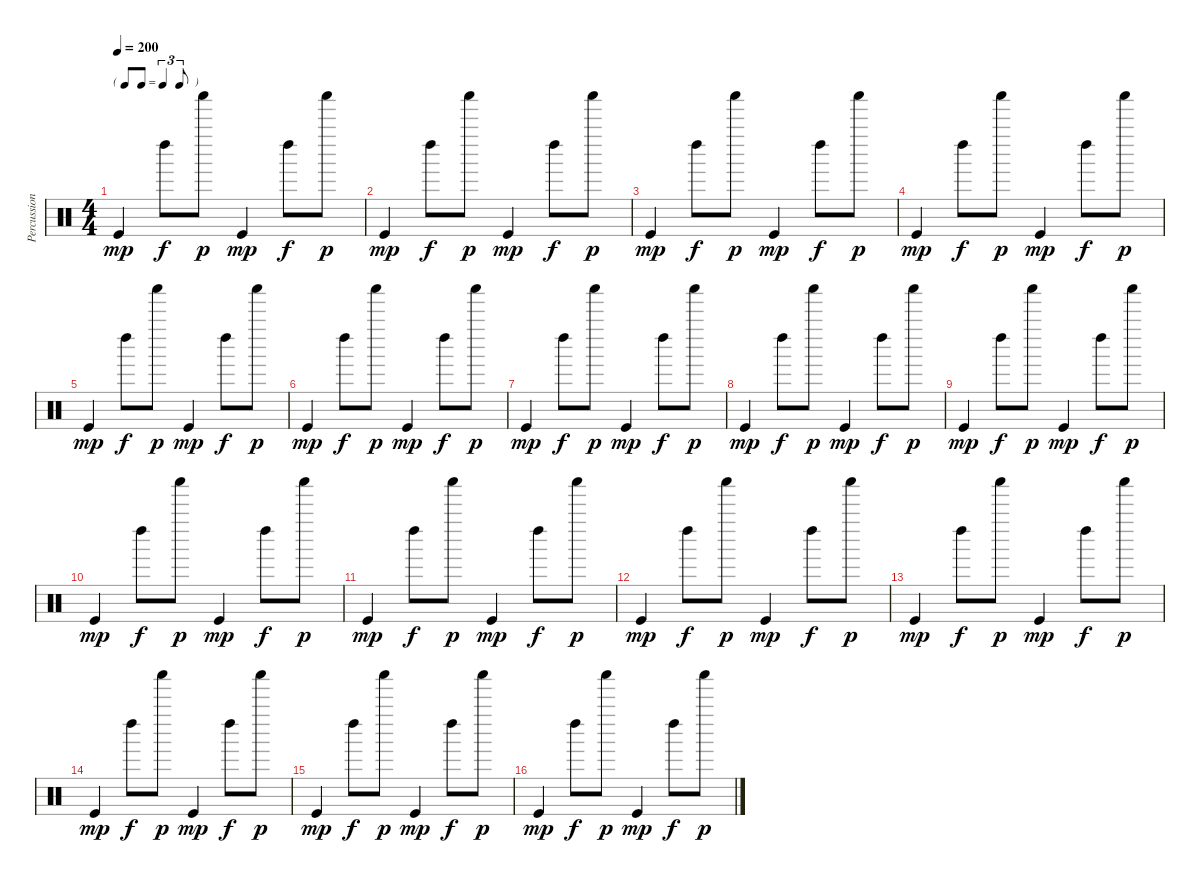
\track ("Percussions" "Percussion") {instrument percussion}
\staff {score}
\articulation defaults
\ts (4 4)
\tf triplet8th
\tempo 200
\clef neutral
\ks c "Kick (hit)".4{dy mp} "Left Maraca (hit)".8{dy f} "Shaker (hit)".8{dy p} "Kick (hit)".4{dy mp} "Left Maraca (hit)".8{dy f} "Shaker (hit)".8{dy p}
|
"Kick (hit)".4{dy mp} "Left Maraca (hit)".8{dy f} "Shaker (hit)".8{dy p} "Kick (hit)".4{dy mp} "Left Maraca (hit)".8{dy f} "Shaker (hit)".8{dy p} |
"Kick (hit)".4{dy mp} "Left Maraca (hit)".8{dy f} "Shaker (hit)".8{dy p} "Kick (hit)".4{dy mp} "Left Maraca (hit)".8{dy f} "Shaker (hit)".8{dy p} |
"Kick (hit)".4{dy mp} "Left Maraca (hit)".8{dy f} "Shaker (hit)".8{dy p} "Kick (hit)".4{dy mp} "Left Maraca (hit)".8{dy f} "Shaker (hit)".8{dy p} |
"Kick (hit)".4{dy mp} "Left Maraca (hit)".8{dy f} "Shaker (hit)".8{dy p} "Kick (hit)".4{dy mp} "Left Maraca (hit)".8{dy f} "Shaker (hit)".8{dy p} |
"Kick (hit)".4{dy mp} "Left Maraca (hit)".8{dy f} "Shaker (hit)".8{dy p} "Kick (hit)".4{dy mp} "Left Maraca (hit)".8{dy f} "Shaker (hit)".8{dy p} |
"Kick (hit)".4{dy mp} "Left Maraca (hit)".8{dy f} "Shaker (hit)".8{dy p} "Kick (hit)".4{dy mp} "Left Maraca (hit)".8{dy f} "Shaker (hit)".8{dy p} |
"Kick (hit)".4{dy mp} "Left Maraca (hit)".8{dy f} "Shaker (hit)".8{dy p} "Kick (hit)".4{dy mp} "Left Maraca (hit)".8{dy f} "Shaker (hit)".8{dy p} |
"Kick (hit)".4{dy mp} "Left Maraca (hit)".8{dy f} "Shaker (hit)".8{dy p} "Kick (hit)".4{dy mp} "Left Maraca (hit)".8{dy f} "Shaker (hit)".8{dy p} |
"Kick (hit)".4{dy mp} "Left Maraca (hit)".8{dy f} "Shaker (hit)".8{dy p} "Kick (hit)".4{dy mp} "Left Maraca (hit)".8{dy f} "Shaker (hit)".8{dy p} |
"Kick (hit)".4{dy mp} "Left Maraca (hit)".8{dy f} "Shaker (hit)".8{dy p} "Kick (hit)".4{dy mp} "Left Maraca (hit)".8{dy f} "Shaker (hit)".8{dy p} |
"Kick (hit)".4{dy mp} "Left Maraca (hit)".8{dy f} "Shaker (hit)".8{dy p} "Kick (hit)".4{dy mp} "Left Maraca (hit)".8{dy f} "Shaker (hit)".8{dy p} |
"Kick (hit)".4{dy mp} "Left Maraca (hit)".8{dy f} "Shaker (hit)".8{dy p} "Kick (hit)".4{dy mp} "Left Maraca (hit)".8{dy f} "Shaker (hit)".8{dy p} |
"Kick (hit)".4{dy mp} "Left Maraca (hit)".8{dy f} "Shaker (hit)".8{dy p} "Kick (hit)".4{dy mp} "Left Maraca (hit)".8{dy f} "Shaker (hit)".8{dy p} |
"Kick (hit)".4{dy mp} "Left Maraca (hit)".8{dy f} "Shaker (hit)".8{dy p} "Kick (hit)".4{dy mp} "Left Maraca (hit)".8{dy f} "Shaker (hit)".8{dy p} |
"Kick (hit)".4{dy mp} "Left Maraca (hit)".8{dy f} "Shaker (hit)".8{dy p} "Kick (hit)".4{dy mp} "Left Maraca (hit)".8{dy f} "Shaker (hit)".8{dy p}
